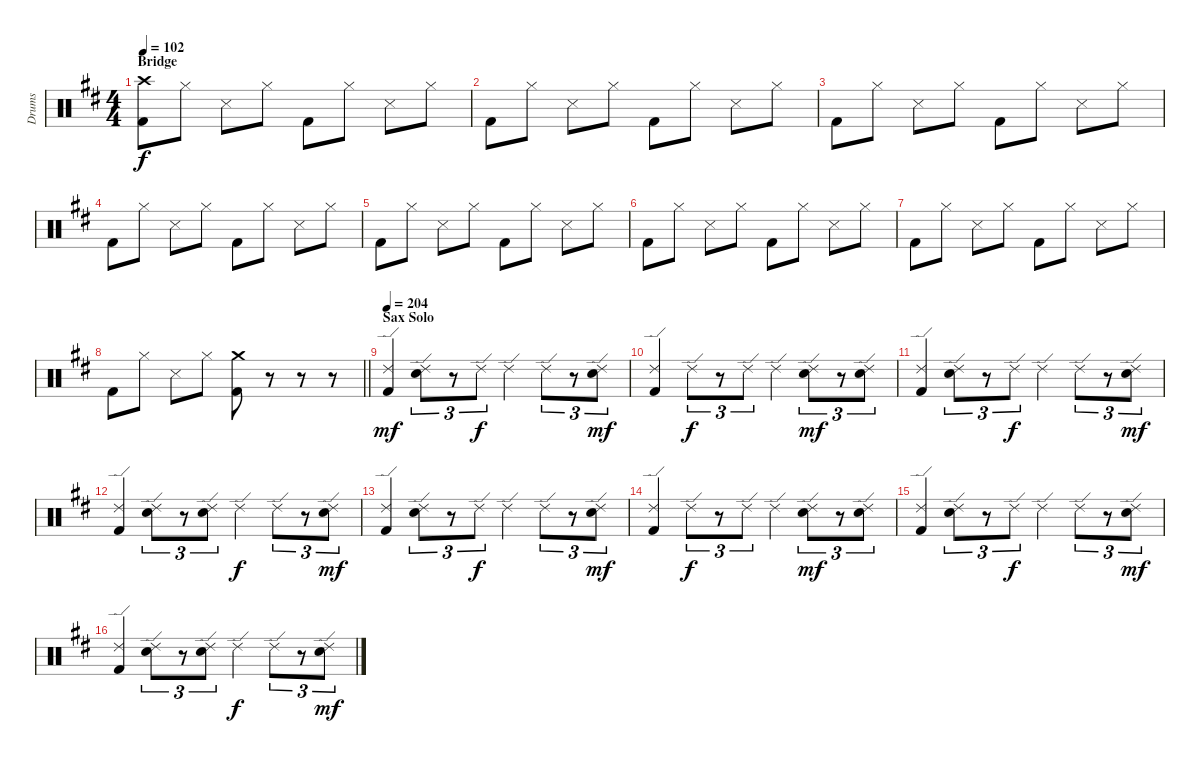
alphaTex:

\track ("Drums" "Drums") {instrument percussion}
\staff {score}
\articulation defaults
\ts (4 4)
\section ("" "Bridge")
\tempo 102
\clef neutral
\ks d
("Crash high (hit)" "Kick (hit) 2").8{dy f} "Hi-Hat (closed)".8 "Snare (side stick) 3".8 "Hi-Hat (closed)".8 "Kick (hit) 2".8 "Hi-Hat (closed)".8 "Snare (side stick) 3".8 "Hi-Hat (closed)".8 |
"Kick (hit) 2".8 "Hi-Hat (closed)".8 "Snare (side stick) 3".8 "Hi-Hat (closed)".8 "Kick (hit) 2".8 "Hi-Hat (closed)".8 "Snare (side stick) 3".8 "Hi-Hat (closed)".8 |
"Kick (hit) 2".8 "Hi-Hat (closed)".8 "Snare (side stick) 3".8 "Hi-Hat (closed)".8 "Kick (hit) 2".8 "Hi-Hat (closed)".8 "Snare (side stick) 3".8 "Hi-Hat (closed)".8 |
"Kick (hit) 2".8 "Hi-Hat (closed)".8 "Snare (side stick) 3".8 "Hi-Hat (closed)".8 "Kick (hit) 2".8 "Hi-Hat (closed)".8 "Snare (side stick) 3".8 "Hi-Hat (closed)".8 |
"Kick (hit) 2".8 "Hi-Hat (closed)".8 "Snare (side stick) 3".8 "Hi-Hat (closed)".8 "Kick (hit) 2".8 "Hi-Hat (closed)".8 "Snare (side stick) 3".8 "Hi-Hat (closed)".8 |
"Kick (hit) 2".8 "Hi-Hat (closed)".8 "Snare (side stick) 3".8 "Hi-Hat (closed)".8 "Kick (hit) 2".8 "Hi-Hat (closed)".8 "Snare (side stick) 3".8 "Hi-Hat (closed)".8 |
"Kick (hit) 2".8 "Hi-Hat (closed)".8 "Snare (side stick) 3".8 "Hi-Hat (closed)".8 "Kick (hit) 2".8 "Hi-Hat (closed)".8 "Snare (side stick) 3".8 "Hi-Hat (closed)".8 |
\barLineRight lightlight "Kick (hit) 2".8 "Hi-Hat (closed)".8 "Snare (side stick) 3".8 "Hi-Hat (closed)".8
("Crash medium (hit)" "Kick (hit) 2").8 r.8 r.8 r.8 |
\section ("" "Sax Solo")
\tempo 204
("Ride (edge) 2" "Kick (hit) 2").4{dy mf} ("Ride (edge) 2" "Snare (hit) 2").8{tu (3 2)} r.8{tu (3 2)} "Ride (edge) 2".8{tu (3 2) dy f} "Ride (edge) 2".4 "Ride (edge) 2".8{tu (3 2)} r.8{tu (3 2)} ("Ride (edge) 2" "Snare (hit) 2").8{tu (3 2) dy mf} |
("Ride (edge) 2" "Kick (hit) 2").4 "Ride (edge) 2".8{tu (3 2) dy f} r.8{tu (3 2)} "Ride (edge) 2".8{tu (3 2)} "Ride (edge) 2".4 ("Ride (edge) 2" "Snare (hit) 2").8{tu (3 2) dy mf} r.8{tu (3 2)} ("Ride (edge) 2" "Snare (hit) 2").8{tu (3 2)} |
("Ride (edge) 2" "Kick (hit) 2").4 ("Ride (edge) 2" "Snare (hit) 2").8{tu (3 2)} r.8{tu (3 2)} "Ride (edge) 2".8{tu (3 2) dy f} "Ride (edge) 2".4 "Ride (edge) 2".8{tu (3 2)} r.8{tu (3 2)} ("Ride (edge) 2" "Snare (hit) 2").8{tu (3 2) dy mf} |
("Ride (edge) 2" "Kick (hit) 2").4 ("Ride (edge) 2" "Snare (hit) 2").8{tu (3 2)} r.8{tu (3 2)} ("Ride (edge) 2" "Snare (hit) 2").8{tu (3 2)} "Ride (edge) 2".4{dy f} "Ride (edge) 2".8{tu (3 2)} r.8{tu (3 2)} ("Ride (edge) 2" "Snare (hit) 2").8{tu (3 2) dy mf} |
("Ride (edge) 2" "Kick (hit) 2").4 ("Ride (edge) 2" "Snare (hit) 2").8{tu (3 2)} r.8{tu (3 2)} "Ride (edge) 2".8{tu (3 2) dy f} "Ride (edge) 2".4 "Ride (edge) 2".8{tu (3 2)} r.8{tu (3 2)} ("Ride (edge) 2" "Snare (hit) 2").8{tu (3 2) dy mf} |
("Ride (edge) 2" "Kick (hit) 2").4 "Ride (edge) 2".8{tu (3 2) dy f} r.8{tu (3 2)} "Ride (edge) 2".8{tu (3 2)} "Ride (edge) 2".4 ("Ride (edge) 2" "Snare (hit) 2").8{tu (3 2) dy mf} r.8{tu (3 2)} ("Ride (edge) 2" "Snare (hit) 2").8{tu (3 2)} |
("Ride (edge) 2" "Kick (hit) 2").4 ("Ride (edge) 2" "Snare (hit) 2").8{tu (3 2)} r.8{tu (3 2)} "Ride (edge) 2".8{tu (3 2) dy f} "Ride (edge) 2".4 "Ride (edge) 2".8{tu (3 2)} r.8{tu (3 2)} ("Ride (edge) 2" "Snare (hit) 2").8{tu (3 2) dy mf} |
("Ride (edge) 2" "Kick (hit) 2").4 ("Ride (edge) 2" "Snare (hit) 2").8{tu (3 2)} r.8{tu (3 2)} ("Ride (edge) 2" "Snare (hit) 2").8{tu (3 2)} "Ride (edge) 2".4{dy f} "Ride (edge) 2".8{tu (3 2)} r.8{tu (3 2)} ("Ride (edge) 2" "Snare (hit) 2").8{tu (3 2) dy mf}
